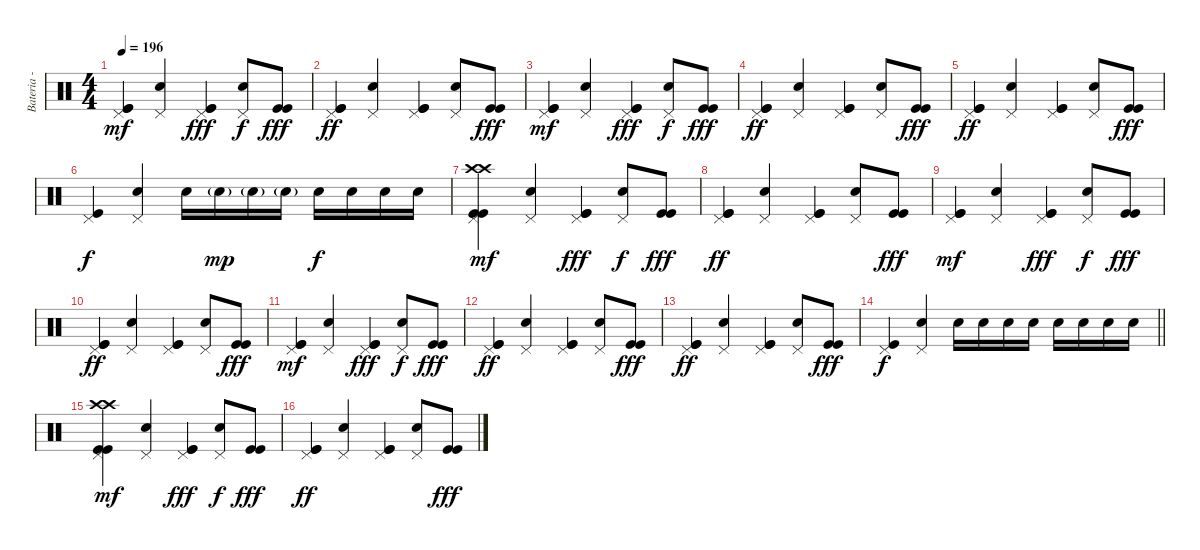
\track ("Bateria - Larzon" "Bateria - ") {instrument percussion}
\staff {score}
\articulation defaults
\ts (4 4)
\tempo 196
\clef neutral
\ks c
("Kick (hit)" "Kick (hit)" "Pedal Hi-Hat (hit)").4{dy mf} ("Electric Snare (hit)" "Pedal Hi-Hat (hit)").4 ("Kick (hit)" "Kick (hit)" "Pedal Hi-Hat (hit)").4{dy fff} ("Electric Snare (hit)" "Pedal Hi-Hat (hit)").8{dy f} ("Kick (hit)" "Kick (hit)").8{dy fff} |
("Kick (hit)" "Kick (hit)" "Pedal Hi-Hat (hit)").4{dy ff} ("Electric Snare (hit)" "Pedal Hi-Hat (hit)").4 ("Kick (hit)" "Kick (hit)" "Pedal Hi-Hat (hit)").4 ("Electric Snare (hit)" "Pedal Hi-Hat (hit)").8 ("Kick (hit)" "Kick (hit)").8{dy fff} |
("Kick (hit)" "Kick (hit)" "Pedal Hi-Hat (hit)").4{dy mf} ("Electric Snare (hit)" "Pedal Hi-Hat (hit)").4 ("Kick (hit)" "Kick (hit)" "Pedal Hi-Hat (hit)").4{dy fff} ("Electric Snare (hit)" "Pedal Hi-Hat (hit)").8{dy f} ("Kick (hit)" "Kick (hit)").8{dy fff} |
("Kick (hit)" "Kick (hit)" "Pedal Hi-Hat (hit)").4{dy ff} ("Electric Snare (hit)" "Pedal Hi-Hat (hit)").4 ("Kick (hit)" "Kick (hit)" "Pedal Hi-Hat (hit)").4 ("Electric Snare (hit)" "Pedal Hi-Hat (hit)").8 ("Kick (hit)" "Kick (hit)").8{dy fff} |
("Kick (hit)" "Kick (hit)" "Pedal Hi-Hat (hit)").4{dy ff} ("Electric Snare (hit)" "Pedal Hi-Hat (hit)").4 ("Kick (hit)" "Kick (hit)" "Pedal Hi-Hat (hit)").4 ("Electric Snare (hit)" "Pedal Hi-Hat (hit)").8 ("Kick (hit)" "Kick (hit)").8{dy fff} |
("Kick (hit)" "Pedal Hi-Hat (hit)").4{dy f} ("Electric Snare (hit)" "Pedal Hi-Hat (hit)").4 "Electric Snare (hit)".16 "Electric Snare (hit)"{g}.16{dy mp} "Electric Snare (hit)"{g}.16 "Electric Snare (hit)"{g}.16 "Electric Snare (hit)".16{dy f} "Electric Snare (hit)".16 "Electric Snare (hit)".16 "Electric Snare (hit)".16 |
("Kick (hit)" "Kick (hit)" "Crash high (hit)" "Crash high (hit)" "Pedal Hi-Hat (hit)").4{dy mf} ("Electric Snare (hit)" "Pedal Hi-Hat (hit)").4 ("Kick (hit)" "Kick (hit)" "Pedal Hi-Hat (hit)").4{dy fff} ("Electric Snare (hit)" "Pedal Hi-Hat (hit)").8{dy f} ("Kick (hit)" "Kick (hit)").8{dy fff} |
("Kick (hit)" "Kick (hit)" "Pedal Hi-Hat (hit)").4{dy ff} ("Electric Snare (hit)" "Pedal Hi-Hat (hit)").4 ("Kick (hit)" "Kick (hit)" "Pedal Hi-Hat (hit)").4 ("Electric Snare (hit)" "Pedal Hi-Hat (hit)").8 ("Kick (hit)" "Kick (hit)").8{dy fff} |
("Kick (hit)" "Kick (hit)" "Pedal Hi-Hat (hit)").4{dy mf} ("Electric Snare (hit)" "Pedal Hi-Hat (hit)").4 ("Kick (hit)" "Kick (hit)" "Pedal Hi-Hat (hit)").4{dy fff} ("Electric Snare (hit)" "Pedal Hi-Hat (hit)").8{dy f} ("Kick (hit)" "Kick (hit)").8{dy fff} |
("Kick (hit)" "Kick (hit)" "Pedal Hi-Hat (hit)").4{dy ff} ("Electric Snare (hit)" "Pedal Hi-Hat (hit)").4 ("Kick (hit)" "Kick (hit)" "Pedal Hi-Hat (hit)").4 ("Electric Snare (hit)" "Pedal Hi-Hat (hit)").8 ("Kick (hit)" "Kick (hit)").8{dy fff} |
("Kick (hit)" "Kick (hit)" "Pedal Hi-Hat (hit)").4{dy mf} ("Electric Snare (hit)" "Pedal Hi-Hat (hit)").4 ("Kick (hit)" "Kick (hit)" "Pedal Hi-Hat (hit)").4{dy fff} ("Electric Snare (hit)" "Pedal Hi-Hat (hit)").8{dy f} ("Kick (hit)" "Kick (hit)").8{dy fff} |
("Kick (hit)" "Kick (hit)" "Pedal Hi-Hat (hit)").4{dy ff} ("Electric Snare (hit)" "Pedal Hi-Hat (hit)").4 ("Kick (hit)" "Kick (hit)" "Pedal Hi-Hat (hit)").4 ("Electric Snare (hit)" "Pedal Hi-Hat (hit)").8 ("Kick (hit)" "Kick (hit)").8{dy fff} |
("Kick (hit)" "Kick (hit)" "Pedal Hi-Hat (hit)").4{dy ff} ("Electric Snare (hit)" "Pedal Hi-Hat (hit)").4 ("Kick (hit)" "Kick (hit)" "Pedal Hi-Hat (hit)").4 ("Electric Snare (hit)" "Pedal Hi-Hat (hit)").8 ("Kick (hit)" "Kick (hit)").8{dy fff} |
\barLineRight lightlight
("Kick (hit)" "Pedal Hi-Hat (hit)").4{dy f} ("Electric Snare (hit)" "Pedal Hi-Hat (hit)").4 "Electric Snare (hit)".16 "Electric Snare (hit)".16 "Electric Snare (hit)".16 "Electric Snare (hit)".16 "Electric Snare (hit)".16 "Electric Snare (hit)".16 "Electric Snare (hit)".16 "Electric Snare (hit)".16 |
("Kick (hit)" "Kick (hit)" "Crash high (hit)" "Crash high (hit)" "Pedal Hi-Hat (hit)").4{dy mf} ("Electric Snare (hit)" "Pedal Hi-Hat (hit)").4 ("Kick (hit)" "Kick (hit)" "Pedal Hi-Hat (hit)").4{dy fff} ("Electric Snare (hit)" "Pedal Hi-Hat (hit)").8{dy f} ("Kick (hit)" "Kick (hit)").8{dy fff} |
("Kick (hit)" "Kick (hit)" "Pedal Hi-Hat (hit)").4{dy ff} ("Electric Snare (hit)" "Pedal Hi-Hat (hit)").4 ("Kick (hit)" "Kick (hit)" "Pedal Hi-Hat (hit)").4 ("Electric Snare (hit)" "Pedal Hi-Hat (hit)").8 ("Kick (hit)" "Kick (hit)").8{dy fff}
